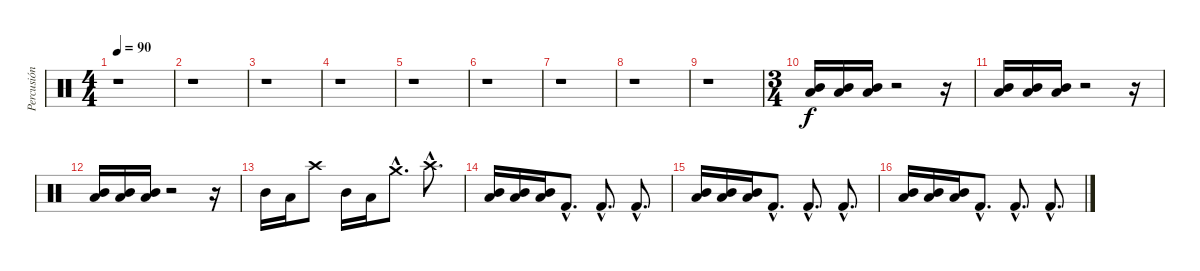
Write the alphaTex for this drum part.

\track ("Percusión" "Percusión") {instrument percussion}
\staff {score}
\articulation defaults
\ts (4 4)
\tempo 90
\clef neutral
\ks c
r.1{dy f} |
r.1 |
r.1 |
r.1 |
r.1 |
r.1 |
r.1 |
r.1 |
r.1 |
\ts (3 4)
("Low Tom (hit)" "Mid Tom (hit)").16 ("Low Tom (hit)" "Mid Tom (hit)").16 ("Low Tom (hit)" "Mid Tom (hit)").16 r.2 r.16 |
("Low Tom (hit)" "Mid Tom (hit)").16 ("Low Tom (hit)" "Mid Tom (hit)").16 ("Low Tom (hit)" "Mid Tom (hit)").16 r.2 r.16 |
("Low Tom (hit)" "Mid Tom (hit)").16 ("Low Tom (hit)" "Mid Tom (hit)").16 ("Low Tom (hit)" "Mid Tom (hit)").16 r.2 r.16 |
"Mid Tom (hit)".16 "Low Tom (hit)".16 "Crash high (hit)".8 "Mid Tom (hit)".16 "Low Tom (hit)".16 "Crash medium (hit)"{hac}.8{d} "Crash high (hit)"{hac}.8{d} |
("Low Tom (hit)" "Mid Tom (hit)").16 ("Low Tom (hit)" "Mid Tom (hit)").16 ("Low Tom (hit)" "Mid Tom (hit)").16 "Kick (hit) 2"{hac}.8{d} "Kick (hit) 2"{hac}.8{d} "Kick (hit) 2"{hac}.8{d} |
("Low Tom (hit)" "Mid Tom (hit)").16 ("Low Tom (hit)" "Mid Tom (hit)").16 ("Low Tom (hit)" "Mid Tom (hit)").16 "Kick (hit) 2"{hac}.8{d} "Kick (hit) 2"{hac}.8{d} "Kick (hit) 2"{hac}.8{d} |
("Low Tom (hit)" "Mid Tom (hit)").16 ("Low Tom (hit)" "Mid Tom (hit)").16 ("Low Tom (hit)" "Mid Tom (hit)").16 "Kick (hit) 2"{hac}.8{d} "Kick (hit) 2"{hac}.8{d} "Kick (hit) 2"{hac}.8{d}
